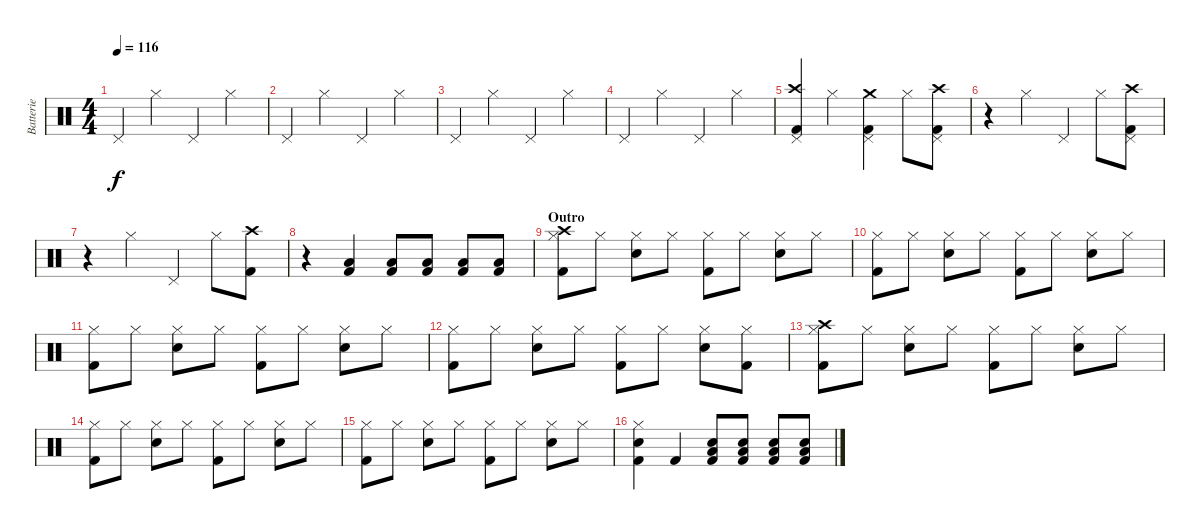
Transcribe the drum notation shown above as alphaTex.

\track ("Batterie" "Batterie") {instrument percussion}
\staff {score}
\articulation defaults
\ts (4 4)
\tempo 116
\clef neutral
\ks c "Pedal Hi-Hat (hit)".4{dy f} "Hi-Hat (closed)".4 "Pedal Hi-Hat (hit)".4 "Hi-Hat (closed)".4
|
"Pedal Hi-Hat (hit)".4 "Hi-Hat (closed)".4 "Pedal Hi-Hat (hit)".4 "Hi-Hat (closed)".4 |
"Pedal Hi-Hat (hit)".4 "Hi-Hat (closed)".4 "Pedal Hi-Hat (hit)".4 "Hi-Hat (closed)".4 |
"Pedal Hi-Hat (hit)".4 "Hi-Hat (closed)".4 "Pedal Hi-Hat (hit)".4 "Hi-Hat (closed)".4 |
("Pedal Hi-Hat (hit)" "Crash high (hit)" "Kick (hit) 2").4 "Hi-Hat (closed)".4 ("Pedal Hi-Hat (hit)" "Crash medium (hit)" "Kick (hit) 2").4 "Hi-Hat (closed)".8 ("Pedal Hi-Hat (hit)" "Crash high (hit)" "Kick (hit) 2").8 |
r.4 "Hi-Hat (closed)".4 "Pedal Hi-Hat (hit)".4 "Hi-Hat (closed)".8 ("Pedal Hi-Hat (hit)" "Crash high (hit)" "Kick (hit) 2").8 |
r.4 "Hi-Hat (closed)".4 "Pedal Hi-Hat (hit)".4 "Hi-Hat (closed)".8 ("Crash high (hit)" "Kick (hit) 2").8 |
r.4 ("Low Tom (hit)" "Kick (hit) 2").4 ("Low Tom (hit)" "Kick (hit) 2").8 ("Low Tom (hit)" "Kick (hit) 2").8 ("Low Tom (hit)" "Kick (hit) 2").8 ("Low Tom (hit)" "Kick (hit) 2").8 |
\section ("" "Outro")
("Hi-Hat (closed)" "Crash high (hit)" "Kick (hit) 2").8 "Hi-Hat (closed)".8 ("Hi-Hat (closed)" "Snare (hit) 2").8 "Hi-Hat (closed)".8 ("Hi-Hat (closed)" "Kick (hit) 2").8 "Hi-Hat (closed)".8 ("Hi-Hat (closed)" "Snare (hit) 2").8 "Hi-Hat (closed)".8 |
("Hi-Hat (closed)" "Kick (hit) 2").8 "Hi-Hat (closed)".8 ("Hi-Hat (closed)" "Snare (hit) 2").8 "Hi-Hat (closed)".8 ("Hi-Hat (closed)" "Kick (hit) 2").8 "Hi-Hat (closed)".8 ("Hi-Hat (closed)" "Snare (hit) 2").8 "Hi-Hat (closed)".8 |
("Hi-Hat (closed)" "Kick (hit) 2").8 "Hi-Hat (closed)".8 ("Hi-Hat (closed)" "Snare (hit) 2").8 "Hi-Hat (closed)".8 ("Hi-Hat (closed)" "Kick (hit) 2").8 "Hi-Hat (closed)".8 ("Hi-Hat (closed)" "Snare (hit) 2").8 "Hi-Hat (closed)".8 |
("Hi-Hat (closed)" "Kick (hit) 2").8 "Hi-Hat (closed)".8 ("Hi-Hat (closed)" "Snare (hit) 2").8 "Hi-Hat (closed)".8 ("Hi-Hat (closed)" "Kick (hit) 2").8 "Hi-Hat (closed)".8 ("Hi-Hat (closed)" "Snare (hit) 2").8 ("Hi-Hat (closed)" "Kick (hit) 2").8 |
("Hi-Hat (closed)" "Crash high (hit)" "Kick (hit) 2").8 "Hi-Hat (closed)".8 ("Hi-Hat (closed)" "Snare (hit) 2").8 "Hi-Hat (closed)".8 ("Hi-Hat (closed)" "Kick (hit) 2").8 "Hi-Hat (closed)".8 ("Hi-Hat (closed)" "Snare (hit) 2").8 "Hi-Hat (closed)".8 |
("Hi-Hat (closed)" "Kick (hit) 2").8 "Hi-Hat (closed)".8 ("Hi-Hat (closed)" "Snare (hit) 2").8 "Hi-Hat (closed)".8 ("Hi-Hat (closed)" "Kick (hit) 2").8 "Hi-Hat (closed)".8 ("Hi-Hat (closed)" "Snare (hit) 2").8 "Hi-Hat (closed)".8 |
("Hi-Hat (closed)" "Kick (hit) 2").8 "Hi-Hat (closed)".8 ("Hi-Hat (closed)" "Snare (hit) 2").8 "Hi-Hat (closed)".8 ("Hi-Hat (closed)" "Kick (hit) 2").8 "Hi-Hat (closed)".8 ("Hi-Hat (closed)" "Snare (hit) 2").8 "Hi-Hat (closed)".8 |
("Hi-Hat (closed)" "Snare (hit) 2" "Kick (hit) 2").4 "Kick (hit) 2".4 ("Low Tom (hit)" "Snare (hit) 2" "Kick (hit) 2").8 ("Low Tom (hit)" "Snare (hit) 2" "Kick (hit) 2").8 ("Low Tom (hit)" "Snare (hit) 2" "Kick (hit) 2").8 ("Low Tom (hit)" "Snare (hit) 2" "Kick (hit) 2").8
